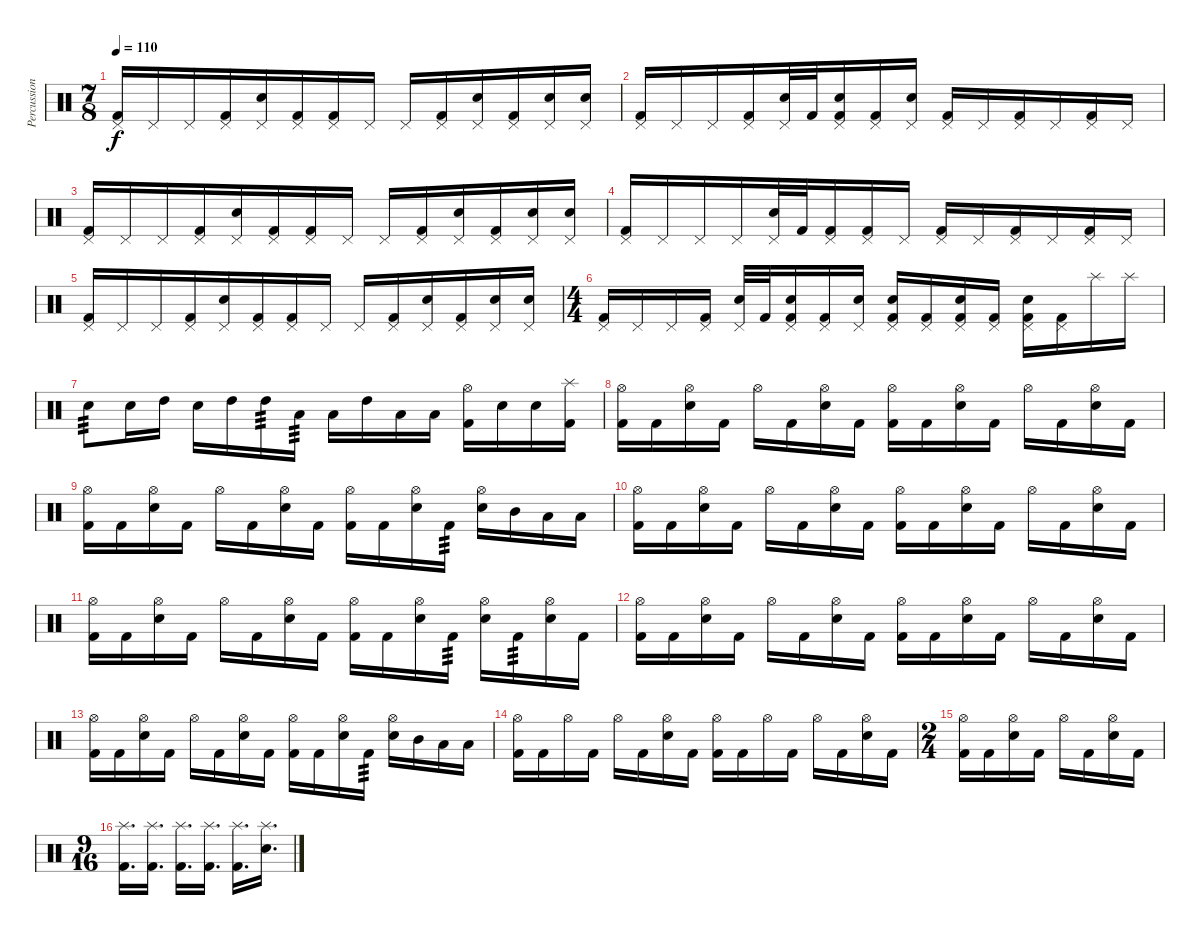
\track ("Percussion" "Percussion") {instrument percussion}
\staff {score}
\articulation defaults
\ts (7 8)
\tempo 110
\clef neutral
\ks c
("Pedal Hi-Hat (hit)" "Kick (hit) 2").16{dy f} "Pedal Hi-Hat (hit)".16 "Pedal Hi-Hat (hit)".16 ("Pedal Hi-Hat (hit)" "Kick (hit) 2").16 ("Pedal Hi-Hat (hit)" "Electric Snare (hit)").16 ("Pedal Hi-Hat (hit)" "Kick (hit) 2").16 ("Pedal Hi-Hat (hit)" "Kick (hit) 2").16 "Pedal Hi-Hat (hit)".16 "Pedal Hi-Hat (hit)".16 ("Pedal Hi-Hat (hit)" "Kick (hit) 2").16 ("Pedal Hi-Hat (hit)" "Electric Snare (hit)").16 ("Pedal Hi-Hat (hit)" "Kick (hit) 2").16 ("Pedal Hi-Hat (hit)" "Electric Snare (hit)").16 ("Pedal Hi-Hat (hit)" "Electric Snare (hit)").16 |
("Pedal Hi-Hat (hit)" "Kick (hit) 2").16 "Pedal Hi-Hat (hit)".16 "Pedal Hi-Hat (hit)".16 ("Pedal Hi-Hat (hit)" "Kick (hit) 2").16 ("Pedal Hi-Hat (hit)" "Electric Snare (hit)").32 "Kick (hit) 2".32 ("Pedal Hi-Hat (hit)" "Electric Snare (hit)" "Kick (hit) 2").16 ("Pedal Hi-Hat (hit)" "Kick (hit) 2").16 ("Pedal Hi-Hat (hit)" "Electric Snare (hit)").16 ("Pedal Hi-Hat (hit)" "Kick (hit) 2").16 "Pedal Hi-Hat (hit)".16 ("Pedal Hi-Hat (hit)" "Kick (hit) 2").16 "Pedal Hi-Hat (hit)".16 ("Pedal Hi-Hat (hit)" "Kick (hit) 2").16 "Pedal Hi-Hat (hit)".16 |
("Pedal Hi-Hat (hit)" "Kick (hit) 2").16 "Pedal Hi-Hat (hit)".16 "Pedal Hi-Hat (hit)".16 ("Pedal Hi-Hat (hit)" "Kick (hit) 2").16 ("Pedal Hi-Hat (hit)" "Electric Snare (hit)").16 ("Pedal Hi-Hat (hit)" "Kick (hit) 2").16 ("Pedal Hi-Hat (hit)" "Kick (hit) 2").16 "Pedal Hi-Hat (hit)".16 "Pedal Hi-Hat (hit)".16 ("Pedal Hi-Hat (hit)" "Kick (hit) 2").16 ("Pedal Hi-Hat (hit)" "Electric Snare (hit)").16 ("Pedal Hi-Hat (hit)" "Kick (hit) 2").16 ("Pedal Hi-Hat (hit)" "Electric Snare (hit)").16 ("Pedal Hi-Hat (hit)" "Electric Snare (hit)").16 |
("Pedal Hi-Hat (hit)" "Kick (hit) 2").16 "Pedal Hi-Hat (hit)".16 "Pedal Hi-Hat (hit)".16 "Pedal Hi-Hat (hit)".16 ("Pedal Hi-Hat (hit)" "Electric Snare (hit)").32 "Kick (hit) 2".32 ("Pedal Hi-Hat (hit)" "Kick (hit) 2").16 ("Pedal Hi-Hat (hit)" "Kick (hit) 2").16 "Pedal Hi-Hat (hit)".16 ("Pedal Hi-Hat (hit)" "Kick (hit) 2").16 "Pedal Hi-Hat (hit)".16 ("Pedal Hi-Hat (hit)" "Kick (hit) 2").16 "Pedal Hi-Hat (hit)".16 ("Pedal Hi-Hat (hit)" "Kick (hit) 2").16 "Pedal Hi-Hat (hit)".16 |
("Pedal Hi-Hat (hit)" "Kick (hit) 2").16 "Pedal Hi-Hat (hit)".16 "Pedal Hi-Hat (hit)".16 ("Pedal Hi-Hat (hit)" "Kick (hit) 2").16 ("Pedal Hi-Hat (hit)" "Electric Snare (hit)").16 ("Pedal Hi-Hat (hit)" "Kick (hit) 2").16 ("Pedal Hi-Hat (hit)" "Kick (hit) 2").16 "Pedal Hi-Hat (hit)".16 "Pedal Hi-Hat (hit)".16 ("Pedal Hi-Hat (hit)" "Kick (hit) 2").16 ("Pedal Hi-Hat (hit)" "Electric Snare (hit)").16 ("Pedal Hi-Hat (hit)" "Kick (hit) 2").16 ("Pedal Hi-Hat (hit)" "Electric Snare (hit)").16 ("Pedal Hi-Hat (hit)" "Electric Snare (hit)").16 |
\ts (4 4)
("Pedal Hi-Hat (hit)" "Kick (hit) 2").16 "Pedal Hi-Hat (hit)".16 "Pedal Hi-Hat (hit)".16 ("Pedal Hi-Hat (hit)" "Kick (hit) 2").16 ("Pedal Hi-Hat (hit)" "Electric Snare (hit)").32 "Kick (hit) 2".32 ("Pedal Hi-Hat (hit)" "Electric Snare (hit)" "Kick (hit) 2").16 ("Pedal Hi-Hat (hit)" "Kick (hit) 2").16 ("Pedal Hi-Hat (hit)" "Electric Snare (hit)").16 ("Pedal Hi-Hat (hit)" "Electric Snare (hit)" "Kick (hit) 2").16 ("Pedal Hi-Hat (hit)" "Kick (hit) 2").16 ("Pedal Hi-Hat (hit)" "Electric Snare (hit)" "Kick (hit) 2").16 ("Pedal Hi-Hat (hit)" "Kick (hit) 2").16 ("Pedal Hi-Hat (hit)" "Electric Snare (hit)" "Kick (hit) 2").16 ("Pedal Hi-Hat (hit)" "Kick (hit) 2").16 "Splash (hit)".16 "Splash (hit)".16 |
"Electric Snare (hit)".8{tp 3} "Electric Snare (hit)".16 "High Tom (hit)".16 "Electric Snare (hit)".16 "High Tom (hit)".16 "High Tom (hit)".16{tp 3} "Low Tom (hit)".16{tp 3} "Low Floor Tom (hit)".16 "High Tom (hit)".16 "Low Tom (hit)".16 "Low Floor Tom (hit)".16 ("Hi-Hat (open)" "Kick (hit) 2").16 "Electric Snare (hit)".16 "Electric Snare (hit)".16 ("Splash (hit)" "Kick (hit) 2").16 |
("Hi-Hat (open)" "Kick (hit) 2").16 "Kick (hit) 2".16 ("Hi-Hat (open)" "Electric Snare (hit)").16 "Kick (hit) 2".16 "Hi-Hat (open)".16 "Kick (hit) 2".16 ("Hi-Hat (open)" "Electric Snare (hit)").16 "Kick (hit) 2".16 ("Hi-Hat (open)" "Kick (hit) 2").16 "Kick (hit) 2".16 ("Hi-Hat (open)" "Electric Snare (hit)").16 "Kick (hit) 2".16 "Hi-Hat (open)".16 "Kick (hit) 2".16 ("Hi-Hat (open)" "Electric Snare (hit)").16 "Kick (hit) 2".16 |
("Hi-Hat (open)" "Kick (hit) 2").16 "Kick (hit) 2".16 ("Hi-Hat (open)" "Electric Snare (hit)").16 "Kick (hit) 2".16 "Hi-Hat (open)".16 "Kick (hit) 2".16 ("Hi-Hat (open)" "Electric Snare (hit)").16 "Kick (hit) 2".16 ("Hi-Hat (open)" "Kick (hit) 2").16 "Kick (hit) 2".16 ("Hi-Hat (open)" "Electric Snare (hit)").16 "Kick (hit) 2".16{tp 3} ("Hi-Hat (open)" "Electric Snare (hit)").16 "Mid Tom (hit)".16 "Low Tom (hit)".16 "Low Floor Tom (hit)".16 |
("Hi-Hat (open)" "Kick (hit) 2").16 "Kick (hit) 2".16 ("Hi-Hat (open)" "Electric Snare (hit)").16 "Kick (hit) 2".16 "Hi-Hat (open)".16 "Kick (hit) 2".16 ("Hi-Hat (open)" "Electric Snare (hit)").16 "Kick (hit) 2".16 ("Hi-Hat (open)" "Kick (hit) 2").16 "Kick (hit) 2".16 ("Hi-Hat (open)" "Electric Snare (hit)").16 "Kick (hit) 2".16 "Hi-Hat (open)".16 "Kick (hit) 2".16 ("Hi-Hat (open)" "Electric Snare (hit)").16 "Kick (hit) 2".16 |
("Hi-Hat (open)" "Kick (hit) 2").16 "Kick (hit) 2".16 ("Hi-Hat (open)" "Electric Snare (hit)").16 "Kick (hit) 2".16 "Hi-Hat (open)".16 "Kick (hit) 2".16 ("Hi-Hat (open)" "Electric Snare (hit)").16 "Kick (hit) 2".16 ("Hi-Hat (open)" "Kick (hit) 2").16 "Kick (hit) 2".16 ("Hi-Hat (open)" "Electric Snare (hit)").16 "Kick (hit) 2".16{tp 3} ("Hi-Hat (open)" "Electric Snare (hit)").16 "Kick (hit) 2".16{tp 3} ("Hi-Hat (open)" "Electric Snare (hit)").16 "Kick (hit) 2".16 |
("Hi-Hat (open)" "Kick (hit) 2").16 "Kick (hit) 2".16 ("Hi-Hat (open)" "Electric Snare (hit)").16 "Kick (hit) 2".16 "Hi-Hat (open)".16 "Kick (hit) 2".16 ("Hi-Hat (open)" "Electric Snare (hit)").16 "Kick (hit) 2".16 ("Hi-Hat (open)" "Kick (hit) 2").16 "Kick (hit) 2".16 ("Hi-Hat (open)" "Electric Snare (hit)").16 "Kick (hit) 2".16 "Hi-Hat (open)".16 "Kick (hit) 2".16 ("Hi-Hat (open)" "Electric Snare (hit)").16 "Kick (hit) 2".16 |
("Hi-Hat (open)" "Kick (hit) 2").16 "Kick (hit) 2".16 ("Hi-Hat (open)" "Electric Snare (hit)").16 "Kick (hit) 2".16 "Hi-Hat (open)".16 "Kick (hit) 2".16 ("Hi-Hat (open)" "Electric Snare (hit)").16 "Kick (hit) 2".16 ("Hi-Hat (open)" "Kick (hit) 2").16 "Kick (hit) 2".16 ("Hi-Hat (open)" "Electric Snare (hit)").16 "Kick (hit) 2".16{tp 3} ("Hi-Hat (open)" "Electric Snare (hit)").16 "Mid Tom (hit)".16 "Low Tom (hit)".16 "Low Floor Tom (hit)".16 |
("Hi-Hat (open)" "Kick (hit) 2").16 "Kick (hit) 2".16 "Hi-Hat (open)".16 "Kick (hit) 2".16 "Hi-Hat (open)".16 "Kick (hit) 2".16 ("Hi-Hat (open)" "Electric Snare (hit)").16 "Kick (hit) 2".16 ("Hi-Hat (open)" "Kick (hit) 2").16 "Kick (hit) 2".16 "Hi-Hat (open)".16 "Kick (hit) 2".16 "Hi-Hat (open)".16 "Kick (hit) 2".16 ("Hi-Hat (open)" "Electric Snare (hit)").16 "Kick (hit) 2".16 |
\ts (2 4)
("Hi-Hat (open)" "Kick (hit) 2").16 "Kick (hit) 2".16 ("Hi-Hat (open)" "Electric Snare (hit)").16 "Kick (hit) 2".16 "Hi-Hat (open)".16 "Kick (hit) 2".16 ("Hi-Hat (open)" "Electric Snare (hit)").16 "Kick (hit) 2".16 |
\ts (9 16)
("Splash (hit)" "Kick (hit) 2").16{d} ("Splash (hit)" "Kick (hit) 2").16{d} ("Splash (hit)" "Kick (hit) 2").16{d} ("Splash (hit)" "Kick (hit) 2").16{d} ("Splash (hit)" "Kick (hit) 2").16{d} ("Splash (hit)" "Electric Snare (hit)").16{d}
